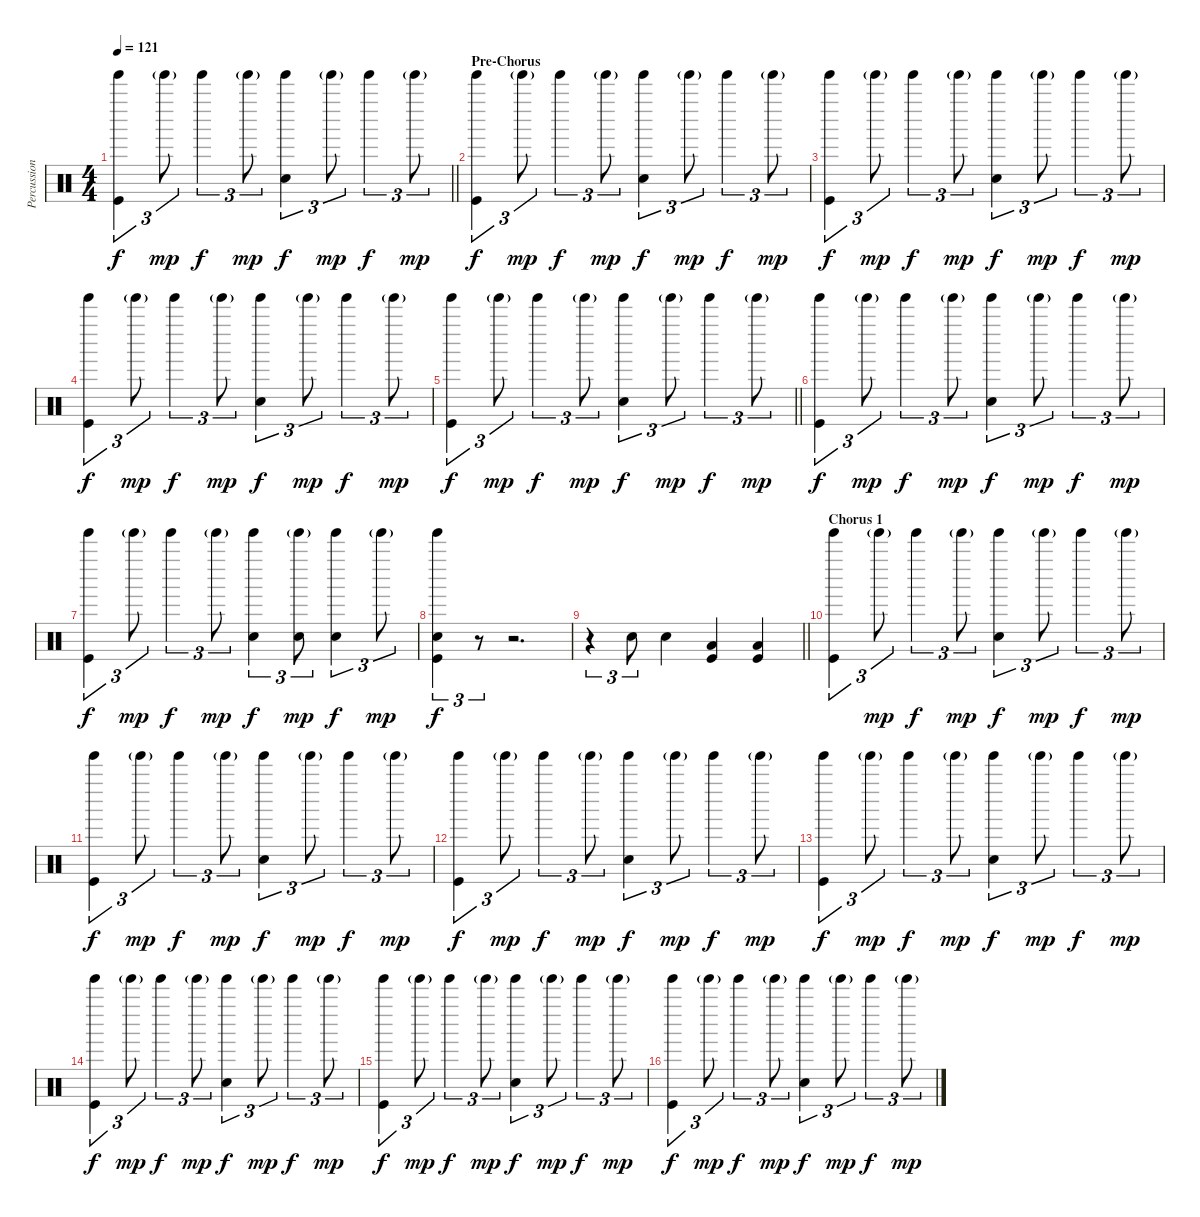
\track ("Percussion" "Percussion") {instrument percussion}
\staff
\articulation defaults
\ts (4 4)
\tempo 121
\clef neutral
\barLineRight lightlight
\ks c
("Tinkle Bell (hit)" "Kick (hit)").4{tu (3 2) dy f} "Tinkle Bell (hit)"{g}.8{tu (3 2) dy mp} "Tinkle Bell (hit)".4{tu (3 2) dy f} "Tinkle Bell (hit)"{g}.8{tu (3 2) dy mp} ("Electric Snare (hit)" "Tinkle Bell (hit)").4{tu (3 2) dy f} "Tinkle Bell (hit)"{g}.8{tu (3 2) dy mp} "Tinkle Bell (hit)".4{tu (3 2) dy f} "Tinkle Bell (hit)"{g}.8{tu (3 2) dy mp} |
\section ("" "Pre-Chorus")
("Tinkle Bell (hit)" "Kick (hit)").4{tu (3 2) dy f} "Tinkle Bell (hit)"{g}.8{tu (3 2) dy mp} "Tinkle Bell (hit)".4{tu (3 2) dy f} "Tinkle Bell (hit)"{g}.8{tu (3 2) dy mp} ("Electric Snare (hit)" "Tinkle Bell (hit)").4{tu (3 2) dy f} "Tinkle Bell (hit)"{g}.8{tu (3 2) dy mp} "Tinkle Bell (hit)".4{tu (3 2) dy f} "Tinkle Bell (hit)"{g}.8{tu (3 2) dy mp} |
("Tinkle Bell (hit)" "Kick (hit)").4{tu (3 2) dy f} "Tinkle Bell (hit)"{g}.8{tu (3 2) dy mp} "Tinkle Bell (hit)".4{tu (3 2) dy f} "Tinkle Bell (hit)"{g}.8{tu (3 2) dy mp} ("Electric Snare (hit)" "Tinkle Bell (hit)").4{tu (3 2) dy f} "Tinkle Bell (hit)"{g}.8{tu (3 2) dy mp} "Tinkle Bell (hit)".4{tu (3 2) dy f} "Tinkle Bell (hit)"{g}.8{tu (3 2) dy mp} |
("Tinkle Bell (hit)" "Kick (hit)").4{tu (3 2) dy f} "Tinkle Bell (hit)"{g}.8{tu (3 2) dy mp} "Tinkle Bell (hit)".4{tu (3 2) dy f} "Tinkle Bell (hit)"{g}.8{tu (3 2) dy mp} ("Electric Snare (hit)" "Tinkle Bell (hit)").4{tu (3 2) dy f} "Tinkle Bell (hit)"{g}.8{tu (3 2) dy mp} "Tinkle Bell (hit)".4{tu (3 2) dy f} "Tinkle Bell (hit)"{g}.8{tu (3 2) dy mp} |
\barLineRight lightlight
("Tinkle Bell (hit)" "Kick (hit)").4{tu (3 2) dy f} "Tinkle Bell (hit)"{g}.8{tu (3 2) dy mp} "Tinkle Bell (hit)".4{tu (3 2) dy f} "Tinkle Bell (hit)"{g}.8{tu (3 2) dy mp} ("Electric Snare (hit)" "Tinkle Bell (hit)").4{tu (3 2) dy f} "Tinkle Bell (hit)"{g}.8{tu (3 2) dy mp} "Tinkle Bell (hit)".4{tu (3 2) dy f} "Tinkle Bell (hit)"{g}.8{tu (3 2) dy mp} |
("Tinkle Bell (hit)" "Kick (hit)").4{tu (3 2) dy f} "Tinkle Bell (hit)"{g}.8{tu (3 2) dy mp} "Tinkle Bell (hit)".4{tu (3 2) dy f} "Tinkle Bell (hit)"{g}.8{tu (3 2) dy mp} ("Electric Snare (hit)" "Tinkle Bell (hit)").4{tu (3 2) dy f} "Tinkle Bell (hit)"{g}.8{tu (3 2) dy mp} "Tinkle Bell (hit)".4{tu (3 2) dy f} "Tinkle Bell (hit)"{g}.8{tu (3 2) dy mp} |
("Tinkle Bell (hit)" "Kick (hit)").4{tu (3 2) dy f} "Tinkle Bell (hit)"{g}.8{tu (3 2) dy mp} "Tinkle Bell (hit)".4{tu (3 2) dy f} "Tinkle Bell (hit)"{g}.8{tu (3 2) dy mp} ("Electric Snare (hit)" "Tinkle Bell (hit)").4{tu (3 2) dy f} ("Electric Snare (hit)" "Tinkle Bell (hit)"{g}).8{tu (3 2) dy mp} ("Electric Snare (hit)" "Tinkle Bell (hit)").4{tu (3 2) dy f} "Tinkle Bell (hit)"{g}.8{tu (3 2) dy mp} |
("Electric Snare (hit)" "Tinkle Bell (hit)" "Kick (hit)").4{tu (3 2) dy f} r.8{tu (3 2)} r.2{d} |
\barLineRight lightlight
r.4{tu (3 2)} "Electric Snare (hit)".8{tu (3 2)} "Electric Snare (hit)".4 ("Low Tom (hit)" "Kick (hit)").4 ("Low Floor Tom (hit)" "Kick (hit)").4 |
\section ("" "Chorus 1")
("Tinkle Bell (hit)" "Kick (hit)").4{tu (3 2)} "Tinkle Bell (hit)"{g}.8{tu (3 2) dy mp} "Tinkle Bell (hit)".4{tu (3 2) dy f} "Tinkle Bell (hit)"{g}.8{tu (3 2) dy mp} ("Electric Snare (hit)" "Tinkle Bell (hit)").4{tu (3 2) dy f} "Tinkle Bell (hit)"{g}.8{tu (3 2) dy mp} "Tinkle Bell (hit)".4{tu (3 2) dy f} "Tinkle Bell (hit)"{g}.8{tu (3 2) dy mp} |
("Tinkle Bell (hit)" "Kick (hit)").4{tu (3 2) dy f} "Tinkle Bell (hit)"{g}.8{tu (3 2) dy mp} "Tinkle Bell (hit)".4{tu (3 2) dy f} "Tinkle Bell (hit)"{g}.8{tu (3 2) dy mp} ("Electric Snare (hit)" "Tinkle Bell (hit)").4{tu (3 2) dy f} "Tinkle Bell (hit)"{g}.8{tu (3 2) dy mp} "Tinkle Bell (hit)".4{tu (3 2) dy f} "Tinkle Bell (hit)"{g}.8{tu (3 2) dy mp} |
("Tinkle Bell (hit)" "Kick (hit)").4{tu (3 2) dy f} "Tinkle Bell (hit)"{g}.8{tu (3 2) dy mp} "Tinkle Bell (hit)".4{tu (3 2) dy f} "Tinkle Bell (hit)"{g}.8{tu (3 2) dy mp} ("Electric Snare (hit)" "Tinkle Bell (hit)").4{tu (3 2) dy f} "Tinkle Bell (hit)"{g}.8{tu (3 2) dy mp} "Tinkle Bell (hit)".4{tu (3 2) dy f} "Tinkle Bell (hit)"{g}.8{tu (3 2) dy mp} |
("Tinkle Bell (hit)" "Kick (hit)").4{tu (3 2) dy f} "Tinkle Bell (hit)"{g}.8{tu (3 2) dy mp} "Tinkle Bell (hit)".4{tu (3 2) dy f} "Tinkle Bell (hit)"{g}.8{tu (3 2) dy mp} ("Electric Snare (hit)" "Tinkle Bell (hit)").4{tu (3 2) dy f} "Tinkle Bell (hit)"{g}.8{tu (3 2) dy mp} "Tinkle Bell (hit)".4{tu (3 2) dy f} "Tinkle Bell (hit)"{g}.8{tu (3 2) dy mp} |
("Tinkle Bell (hit)" "Kick (hit)").4{tu (3 2) dy f} "Tinkle Bell (hit)"{g}.8{tu (3 2) dy mp} "Tinkle Bell (hit)".4{tu (3 2) dy f} "Tinkle Bell (hit)"{g}.8{tu (3 2) dy mp} ("Electric Snare (hit)" "Tinkle Bell (hit)").4{tu (3 2) dy f} "Tinkle Bell (hit)"{g}.8{tu (3 2) dy mp} "Tinkle Bell (hit)".4{tu (3 2) dy f} "Tinkle Bell (hit)"{g}.8{tu (3 2) dy mp} |
("Tinkle Bell (hit)" "Kick (hit)").4{tu (3 2) dy f} "Tinkle Bell (hit)"{g}.8{tu (3 2) dy mp} "Tinkle Bell (hit)".4{tu (3 2) dy f} "Tinkle Bell (hit)"{g}.8{tu (3 2) dy mp} ("Electric Snare (hit)" "Tinkle Bell (hit)").4{tu (3 2) dy f} "Tinkle Bell (hit)"{g}.8{tu (3 2) dy mp} "Tinkle Bell (hit)".4{tu (3 2) dy f} "Tinkle Bell (hit)"{g}.8{tu (3 2) dy mp} |
("Tinkle Bell (hit)" "Kick (hit)").4{tu (3 2) dy f} "Tinkle Bell (hit)"{g}.8{tu (3 2) dy mp} "Tinkle Bell (hit)".4{tu (3 2) dy f} "Tinkle Bell (hit)"{g}.8{tu (3 2) dy mp} ("Electric Snare (hit)" "Tinkle Bell (hit)").4{tu (3 2) dy f} "Tinkle Bell (hit)"{g}.8{tu (3 2) dy mp} "Tinkle Bell (hit)".4{tu (3 2) dy f} "Tinkle Bell (hit)"{g}.8{tu (3 2) dy mp}
